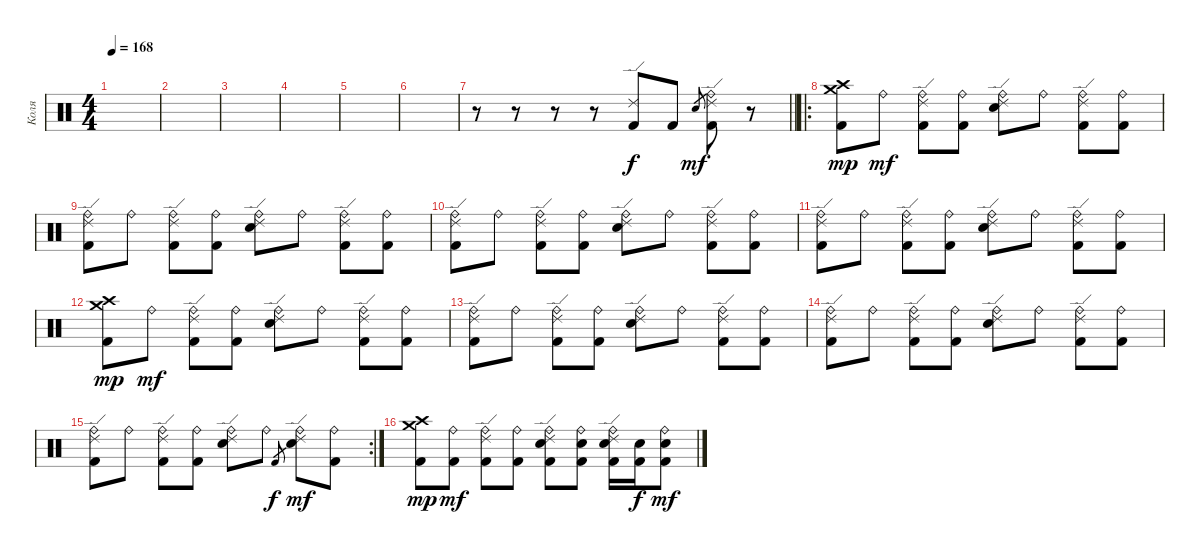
\track ("Коля" "Коля") {instrument percussion}
\staff {score}
\articulation defaults
\ts (4 4)
\tempo 168
\clef neutral
\ks c
|
|
|
|
|
|
\barLineRight lightlight
r.8 r.8 r.8 r.8 ("Kick (hit) 2" "Ride (edge) 2").8 "Kick (hit) 2".8{dy f} "Snare (hit) 2".8{gr dy mf} ("Kick (hit) 2" "Ride (bell)" "Ride (edge) 2").8 r.8 |
\ro
\section ("" "")
("Kick (hit) 2" "Crash medium (hit)" "Crash high (hit)").8{dy mp} "Ride (bell)".8{dy mf} ("Kick (hit) 2" "Ride (bell)" "Ride (edge) 2").8 ("Kick (hit) 2" "Ride (bell)").8 ("Snare (hit) 2" "Ride (bell)" "Ride (edge) 2").8 "Ride (bell)".8 ("Kick (hit) 2" "Ride (bell)" "Ride (edge) 2").8 ("Kick (hit) 2" "Ride (bell)").8 |
("Kick (hit) 2" "Ride (bell)" "Ride (edge) 2").8 "Ride (bell)".8 ("Kick (hit) 2" "Ride (bell)" "Ride (edge) 2").8 ("Kick (hit) 2" "Ride (bell)").8 ("Snare (hit) 2" "Ride (bell)" "Ride (edge) 2").8 "Ride (bell)".8 ("Kick (hit) 2" "Ride (bell)" "Ride (edge) 2").8 ("Kick (hit) 2" "Ride (bell)").8 |
("Kick (hit) 2" "Ride (bell)" "Ride (edge) 2").8 "Ride (bell)".8 ("Kick (hit) 2" "Ride (bell)" "Ride (edge) 2").8 ("Kick (hit) 2" "Ride (bell)").8 ("Snare (hit) 2" "Ride (bell)" "Ride (edge) 2").8 "Ride (bell)".8 ("Kick (hit) 2" "Ride (bell)" "Ride (edge) 2").8 ("Kick (hit) 2" "Ride (bell)").8 |
("Kick (hit) 2" "Ride (bell)" "Ride (edge) 2").8 "Ride (bell)".8 ("Kick (hit) 2" "Ride (bell)" "Ride (edge) 2").8 ("Kick (hit) 2" "Ride (bell)").8 ("Snare (hit) 2" "Ride (bell)" "Ride (edge) 2").8 "Ride (bell)".8 ("Kick (hit) 2" "Ride (bell)" "Ride (edge) 2").8 ("Kick (hit) 2" "Ride (bell)").8 |
("Kick (hit) 2" "Crash medium (hit)" "Crash high (hit)").8{dy mp} "Ride (bell)".8{dy mf} ("Kick (hit) 2" "Ride (bell)" "Ride (edge) 2").8 ("Kick (hit) 2" "Ride (bell)").8 ("Snare (hit) 2" "Ride (bell)" "Ride (edge) 2").8 "Ride (bell)".8 ("Kick (hit) 2" "Ride (bell)" "Ride (edge) 2").8 ("Kick (hit) 2" "Ride (bell)").8 |
("Kick (hit) 2" "Ride (bell)" "Ride (edge) 2").8 "Ride (bell)".8 ("Kick (hit) 2" "Ride (bell)" "Ride (edge) 2").8 ("Kick (hit) 2" "Ride (bell)").8 ("Snare (hit) 2" "Ride (bell)" "Ride (edge) 2").8 "Ride (bell)".8 ("Kick (hit) 2" "Ride (bell)" "Ride (edge) 2").8 ("Kick (hit) 2" "Ride (bell)").8 |
("Kick (hit) 2" "Ride (bell)" "Ride (edge) 2").8 "Ride (bell)".8 ("Kick (hit) 2" "Ride (bell)" "Ride (edge) 2").8 ("Kick (hit) 2" "Ride (bell)").8 ("Snare (hit) 2" "Ride (bell)" "Ride (edge) 2").8 "Ride (bell)".8 ("Kick (hit) 2" "Ride (bell)" "Ride (edge) 2").8 ("Kick (hit) 2" "Ride (bell)").8 |
\rc 2
("Kick (hit) 2" "Ride (bell)" "Ride (edge) 2").8 "Ride (bell)".8 ("Kick (hit) 2" "Ride (bell)" "Ride (edge) 2").8 ("Kick (hit) 2" "Ride (bell)").8 ("Snare (hit) 2" "Ride (bell)" "Ride (edge) 2").8 "Ride (bell)".8 "Kick (hit) 2".8{gr dy f} ("Snare (hit) 2" "Ride (bell)" "Ride (edge) 2").8{dy mf} ("Kick (hit) 2" "Ride (bell)").8 |
("Kick (hit) 2" "Crash medium (hit)" "Crash high (hit)").8{dy mp} ("Kick (hit) 2" "Ride (bell)").8{dy mf} ("Kick (hit) 2" "Ride (bell)" "Ride (edge) 2").8 ("Kick (hit) 2" "Ride (bell)").8 ("Kick (hit) 2" "Snare (hit) 2" "Ride (bell)" "Ride (edge) 2").8 ("Kick (hit) 2" "Snare (hit) 2" "Ride (bell)").8 ("Kick (hit) 2" "Snare (hit) 2" "Ride (bell)" "Ride (edge) 2").16 ("Kick (hit) 2" "Snare (hit) 2").16{dy f} ("Kick (hit) 2" "Snare (hit) 2" "Ride (bell)").8{dy mf}
